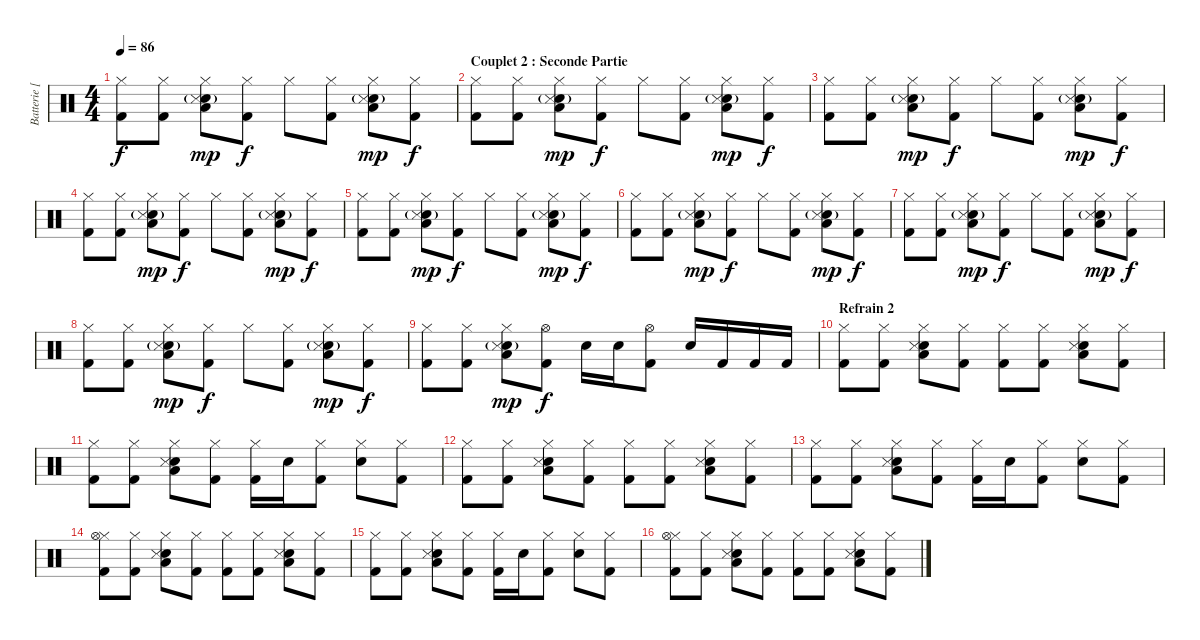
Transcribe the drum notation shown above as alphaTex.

\track ("Batterie [Dominic Howard]" "Batterie [") {instrument percussion}
\staff {score}
\articulation defaults
\ts (4 4)
\tempo 86
\clef neutral
\ks c
("Hi-Hat (closed)" "Kick (hit) 2").8{dy f} ("Hi-Hat (closed)" "Kick (hit) 2").8 ("Hi-Hat (closed)" "Low Tom (hit)" "Electric Snare (hit)"{g} "Snare (side stick) 3").8{dy mp} ("Hi-Hat (closed)" "Kick (hit) 2").8{dy f} "Hi-Hat (closed)".8 ("Hi-Hat (closed)" "Kick (hit) 2").8 ("Hi-Hat (closed)" "Low Tom (hit)" "Electric Snare (hit)"{g} "Snare (side stick) 3").8{dy mp} ("Hi-Hat (closed)" "Kick (hit) 2").8{dy f} |
\section ("" "Couplet 2 : Seconde Partie")
("Hi-Hat (closed)" "Kick (hit) 2").8 ("Hi-Hat (closed)" "Kick (hit) 2").8 ("Hi-Hat (closed)" "Low Tom (hit)" "Electric Snare (hit)"{g} "Snare (side stick) 3").8{dy mp} ("Hi-Hat (closed)" "Kick (hit) 2").8{dy f} "Hi-Hat (closed)".8 ("Hi-Hat (closed)" "Kick (hit) 2").8 ("Hi-Hat (closed)" "Low Tom (hit)" "Electric Snare (hit)"{g} "Snare (side stick) 3").8{dy mp} ("Hi-Hat (closed)" "Kick (hit) 2").8{dy f} |
("Hi-Hat (closed)" "Kick (hit) 2").8 ("Hi-Hat (closed)" "Kick (hit) 2").8 ("Hi-Hat (closed)" "Low Tom (hit)" "Electric Snare (hit)"{g} "Snare (side stick) 3").8{dy mp} ("Hi-Hat (closed)" "Kick (hit) 2").8{dy f} "Hi-Hat (closed)".8 ("Hi-Hat (closed)" "Kick (hit) 2").8 ("Hi-Hat (closed)" "Low Tom (hit)" "Electric Snare (hit)"{g} "Snare (side stick) 3").8{dy mp} ("Hi-Hat (closed)" "Kick (hit) 2").8{dy f} |
("Hi-Hat (closed)" "Kick (hit) 2").8 ("Hi-Hat (closed)" "Kick (hit) 2").8 ("Hi-Hat (closed)" "Low Tom (hit)" "Electric Snare (hit)"{g} "Snare (side stick) 3").8{dy mp} ("Hi-Hat (closed)" "Kick (hit) 2").8{dy f} "Hi-Hat (closed)".8 ("Hi-Hat (closed)" "Kick (hit) 2").8 ("Hi-Hat (closed)" "Low Tom (hit)" "Electric Snare (hit)"{g} "Snare (side stick) 3").8{dy mp} ("Hi-Hat (closed)" "Kick (hit) 2").8{dy f} |
("Hi-Hat (closed)" "Kick (hit) 2").8 ("Hi-Hat (closed)" "Kick (hit) 2").8 ("Hi-Hat (closed)" "Low Tom (hit)" "Electric Snare (hit)"{g} "Snare (side stick) 3").8{dy mp} ("Hi-Hat (closed)" "Kick (hit) 2").8{dy f} "Hi-Hat (closed)".8 ("Hi-Hat (closed)" "Kick (hit) 2").8 ("Hi-Hat (closed)" "Low Tom (hit)" "Electric Snare (hit)"{g} "Snare (side stick) 3").8{dy mp} ("Hi-Hat (closed)" "Kick (hit) 2").8{dy f} |
("Hi-Hat (closed)" "Kick (hit) 2").8 ("Hi-Hat (closed)" "Kick (hit) 2").8 ("Hi-Hat (closed)" "Low Tom (hit)" "Electric Snare (hit)"{g} "Snare (side stick) 3").8{dy mp} ("Hi-Hat (closed)" "Kick (hit) 2").8{dy f} "Hi-Hat (closed)".8 ("Hi-Hat (closed)" "Kick (hit) 2").8 ("Hi-Hat (closed)" "Low Tom (hit)" "Electric Snare (hit)"{g} "Snare (side stick) 3").8{dy mp} ("Hi-Hat (closed)" "Kick (hit) 2").8{dy f} |
("Hi-Hat (closed)" "Kick (hit) 2").8 ("Hi-Hat (closed)" "Kick (hit) 2").8 ("Hi-Hat (closed)" "Low Tom (hit)" "Electric Snare (hit)"{g} "Snare (side stick) 3").8{dy mp} ("Hi-Hat (closed)" "Kick (hit) 2").8{dy f} "Hi-Hat (closed)".8 ("Hi-Hat (closed)" "Kick (hit) 2").8 ("Hi-Hat (closed)" "Low Tom (hit)" "Electric Snare (hit)"{g} "Snare (side stick) 3").8{dy mp} ("Hi-Hat (closed)" "Kick (hit) 2").8{dy f} |
("Hi-Hat (closed)" "Kick (hit) 2").8 ("Hi-Hat (closed)" "Kick (hit) 2").8 ("Hi-Hat (closed)" "Low Tom (hit)" "Electric Snare (hit)"{g} "Snare (side stick) 3").8{dy mp} ("Hi-Hat (closed)" "Kick (hit) 2").8{dy f} "Hi-Hat (closed)".8 ("Hi-Hat (closed)" "Kick (hit) 2").8 ("Hi-Hat (closed)" "Low Tom (hit)" "Electric Snare (hit)"{g} "Snare (side stick) 3").8{dy mp} ("Hi-Hat (closed)" "Kick (hit) 2").8{dy f} |
("Hi-Hat (closed)" "Kick (hit) 2").8 ("Hi-Hat (closed)" "Kick (hit) 2").8 ("Hi-Hat (closed)" "Low Tom (hit)" "Electric Snare (hit)"{g} "Snare (side stick) 3").8{dy mp} ("Hi-Hat (open)" "Kick (hit) 2").8{dy f} "Electric Snare (hit)".16 "Electric Snare (hit)".16 ("Hi-Hat (open)" "Kick (hit) 2").8 "Electric Snare (hit)".16 "Kick (hit) 2".16 "Kick (hit) 2".16 "Kick (hit) 2".16 |
\section ("" "Refrain 2")
("Hi-Hat (closed)" "Kick (hit) 2").8 ("Hi-Hat (closed)" "Kick (hit) 2").8 ("Hi-Hat (closed)" "Low Tom (hit)" "Electric Snare (hit)" "Snare (side stick) 3").8 ("Hi-Hat (closed)" "Kick (hit) 2").8 ("Hi-Hat (closed)" "Kick (hit) 2").8 ("Hi-Hat (closed)" "Kick (hit) 2").8 ("Hi-Hat (closed)" "Low Tom (hit)" "Electric Snare (hit)" "Snare (side stick) 3").8 ("Hi-Hat (closed)" "Kick (hit) 2").8 |
("Hi-Hat (closed)" "Kick (hit) 2").8 ("Hi-Hat (closed)" "Kick (hit) 2").8 ("Hi-Hat (closed)" "Low Tom (hit)" "Electric Snare (hit)" "Snare (side stick) 3").8 ("Hi-Hat (closed)" "Kick (hit) 2").8 ("Hi-Hat (closed)" "Kick (hit) 2").16 "Electric Snare (hit)".16 ("Hi-Hat (closed)" "Kick (hit) 2").8 ("Hi-Hat (closed)" "Electric Snare (hit)").8 ("Hi-Hat (closed)" "Kick (hit) 2").8 |
("Hi-Hat (closed)" "Kick (hit) 2").8 ("Hi-Hat (closed)" "Kick (hit) 2").8 ("Hi-Hat (closed)" "Low Tom (hit)" "Electric Snare (hit)" "Snare (side stick) 3").8 ("Hi-Hat (closed)" "Kick (hit) 2").8 ("Hi-Hat (closed)" "Kick (hit) 2").8 ("Hi-Hat (closed)" "Kick (hit) 2").8 ("Hi-Hat (closed)" "Low Tom (hit)" "Electric Snare (hit)" "Snare (side stick) 3").8 ("Hi-Hat (closed)" "Kick (hit) 2").8 |
("Hi-Hat (closed)" "Kick (hit) 2").8 ("Hi-Hat (closed)" "Kick (hit) 2").8 ("Hi-Hat (closed)" "Low Tom (hit)" "Electric Snare (hit)" "Snare (side stick) 3").8 ("Hi-Hat (closed)" "Kick (hit) 2").8 ("Hi-Hat (closed)" "Kick (hit) 2").16 "Electric Snare (hit)".16 ("Hi-Hat (closed)" "Kick (hit) 2").8 ("Hi-Hat (closed)" "Electric Snare (hit)").8 ("Hi-Hat (closed)" "Kick (hit) 2").8 |
("Hi-Hat (closed)" "Hi-Hat (open)" "Kick (hit) 2").8 ("Hi-Hat (closed)" "Kick (hit) 2").8 ("Hi-Hat (closed)" "Low Tom (hit)" "Electric Snare (hit)" "Snare (side stick) 3").8 ("Hi-Hat (closed)" "Kick (hit) 2").8 ("Hi-Hat (closed)" "Kick (hit) 2").8 ("Hi-Hat (closed)" "Kick (hit) 2").8 ("Hi-Hat (closed)" "Low Tom (hit)" "Electric Snare (hit)" "Snare (side stick) 3").8 ("Hi-Hat (closed)" "Kick (hit) 2").8 |
("Hi-Hat (closed)" "Kick (hit) 2").8 ("Hi-Hat (closed)" "Kick (hit) 2").8 ("Hi-Hat (closed)" "Low Tom (hit)" "Electric Snare (hit)" "Snare (side stick) 3").8 ("Hi-Hat (closed)" "Kick (hit) 2").8 ("Hi-Hat (closed)" "Kick (hit) 2").16 "Electric Snare (hit)".16 ("Hi-Hat (closed)" "Kick (hit) 2").8 ("Hi-Hat (closed)" "Electric Snare (hit)").8 ("Hi-Hat (closed)" "Kick (hit) 2").8 |
("Hi-Hat (closed)" "Hi-Hat (open)" "Kick (hit) 2").8 ("Hi-Hat (closed)" "Kick (hit) 2").8 ("Hi-Hat (closed)" "Low Tom (hit)" "Electric Snare (hit)" "Snare (side stick) 3").8 ("Hi-Hat (closed)" "Kick (hit) 2").8 ("Hi-Hat (closed)" "Kick (hit) 2").8 ("Hi-Hat (closed)" "Kick (hit) 2").8 ("Hi-Hat (closed)" "Low Tom (hit)" "Electric Snare (hit)" "Snare (side stick) 3").8 ("Hi-Hat (closed)" "Kick (hit) 2").8
